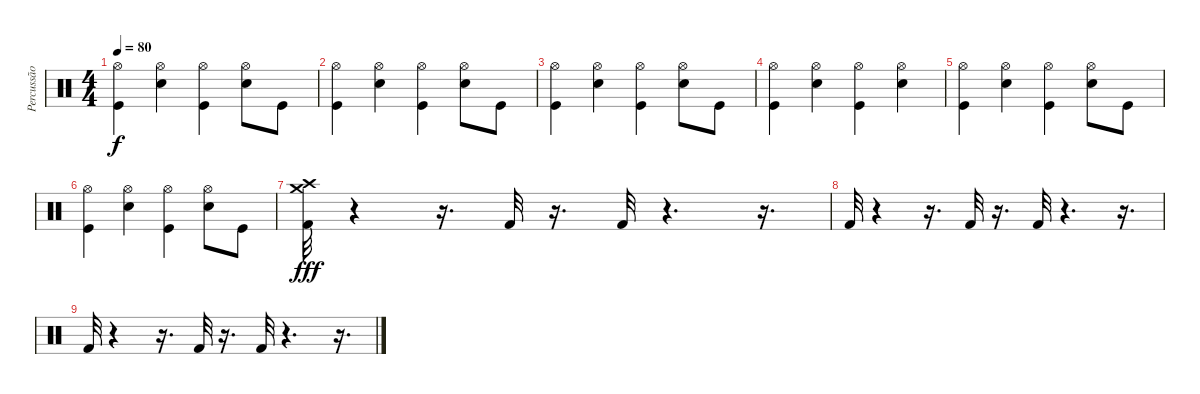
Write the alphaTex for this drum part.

\track ("Percussão" "Percussão") {instrument percussion}
\staff {score}
\articulation defaults
\ts (4 4)
\tempo 80
\clef neutral
\ks c
("Hi-Hat (open)" "Kick (hit)").4{dy f} ("Hi-Hat (open)" "Electric Snare (hit)").4 ("Hi-Hat (open)" "Kick (hit)").4 ("Hi-Hat (open)" "Electric Snare (hit)").8 "Kick (hit)".8 |
("Hi-Hat (open)" "Kick (hit)").4 ("Hi-Hat (open)" "Electric Snare (hit)").4 ("Hi-Hat (open)" "Kick (hit)").4 ("Hi-Hat (open)" "Electric Snare (hit)").8 "Kick (hit)".8 |
("Hi-Hat (open)" "Kick (hit)").4 ("Hi-Hat (open)" "Electric Snare (hit)").4 ("Hi-Hat (open)" "Kick (hit)").4 ("Hi-Hat (open)" "Electric Snare (hit)").8 "Kick (hit)".8 |
("Hi-Hat (open)" "Kick (hit)").4 ("Hi-Hat (open)" "Electric Snare (hit)").4 ("Hi-Hat (open)" "Kick (hit)").4 ("Hi-Hat (open)" "Electric Snare (hit)").4 |
("Hi-Hat (open)" "Kick (hit)").4 ("Hi-Hat (open)" "Electric Snare (hit)").4 ("Hi-Hat (open)" "Kick (hit)").4 ("Hi-Hat (open)" "Electric Snare (hit)").8 "Kick (hit)".8 |
("Hi-Hat (open)" "Kick (hit)").4 ("Hi-Hat (open)" "Electric Snare (hit)").4 ("Hi-Hat (open)" "Kick (hit)").4 ("Hi-Hat (open)" "Electric Snare (hit)").8 "Kick (hit)".8 |
("Kick (hit) 2" "Crash high (hit)" "Crash medium (hit)").32{dy fff} r.4 r.16{d} "Kick (hit) 2".32 r.16{d} "Kick (hit) 2".32 r.4{d} r.16{d} |
"Kick (hit) 2".32 r.4 r.16{d} "Kick (hit) 2".32 r.16{d} "Kick (hit) 2".32 r.4{d} r.16{d} |
"Kick (hit) 2".32 r.4 r.16{d} "Kick (hit) 2".32 r.16{d} "Kick (hit) 2".32 r.4{d} r.16{d}
